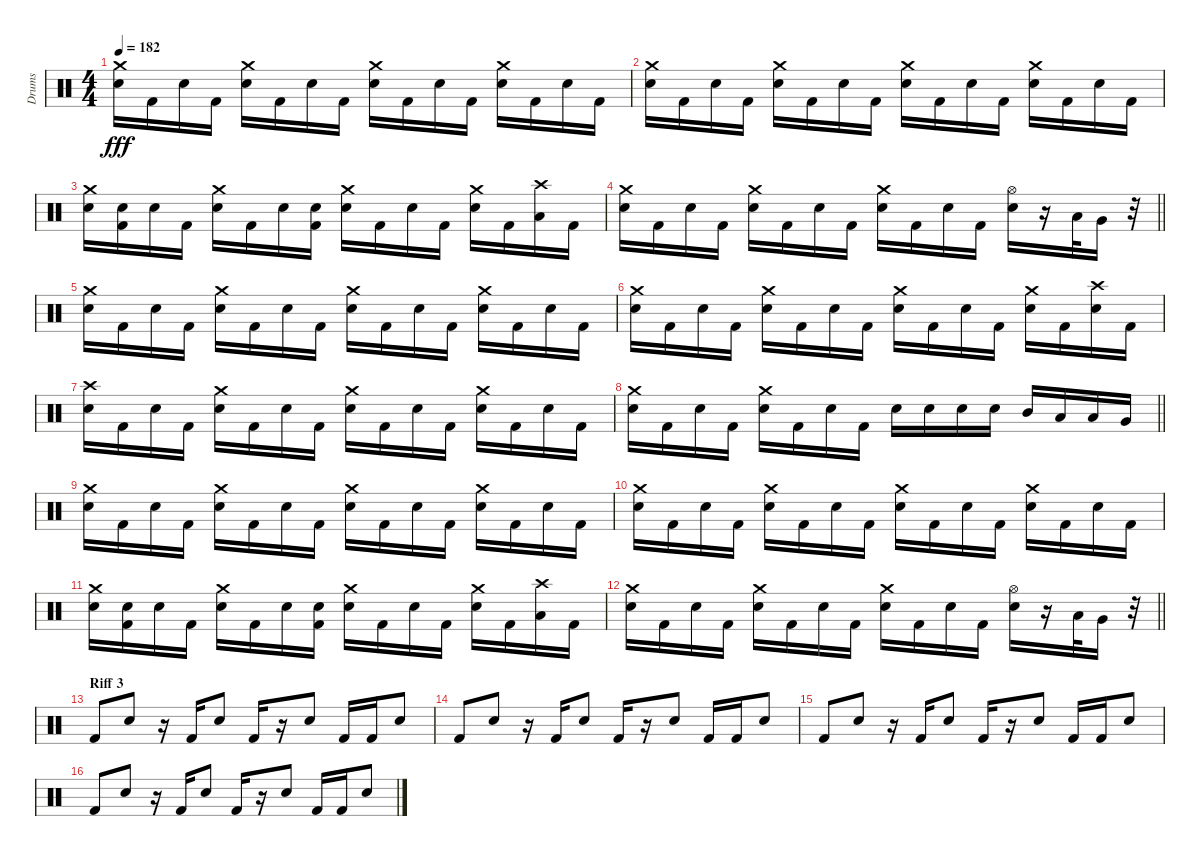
\track ("Drums" "Drums") {instrument percussion}
\staff {score}
\articulation defaults
\ts (4 4)
\tempo 182
\clef neutral
\ks c
("Crash medium (hit)" "Snare (hit) 2").16{dy fff} "Kick (hit) 2".16 "Snare (hit) 2".16 "Kick (hit) 2".16 ("Crash medium (hit)" "Snare (hit) 2").16 "Kick (hit) 2".16 "Snare (hit) 2".16 "Kick (hit) 2".16 ("Crash medium (hit)" "Snare (hit) 2").16 "Kick (hit) 2".16 "Snare (hit) 2".16 "Kick (hit) 2".16 ("Crash medium (hit)" "Snare (hit) 2").16 "Kick (hit) 2".16 "Snare (hit) 2".16 "Kick (hit) 2".16 |
("Crash medium (hit)" "Snare (hit) 2").16 "Kick (hit) 2".16 "Snare (hit) 2".16 "Kick (hit) 2".16 ("Crash medium (hit)" "Snare (hit) 2").16 "Kick (hit) 2".16 "Snare (hit) 2".16 "Kick (hit) 2".16 ("Crash medium (hit)" "Snare (hit) 2").16 "Kick (hit) 2".16 "Snare (hit) 2".16 "Kick (hit) 2".16 ("Crash medium (hit)" "Snare (hit) 2").16 "Kick (hit) 2".16 "Snare (hit) 2".16 "Kick (hit) 2".16 |
("Crash medium (hit)" "Snare (hit) 2").16 ("Kick (hit) 2" "Snare (hit) 2").16 "Snare (hit) 2".16 "Kick (hit) 2".16 ("Crash medium (hit)" "Snare (hit) 2").16 "Kick (hit) 2".16 "Snare (hit) 2".16 ("Kick (hit) 2" "Snare (hit) 2").16 ("Crash medium (hit)" "Snare (hit) 2").16 "Kick (hit) 2".16 "Snare (hit) 2".16 "Kick (hit) 2".16 ("Crash medium (hit)" "Snare (hit) 2").16 "Kick (hit) 2".16 ("Crash high (hit)" "Low Tom (hit)").16 "Kick (hit) 2".16 |
\barLineRight lightlight
("Crash medium (hit)" "Snare (hit) 2").16 "Kick (hit) 2".16 "Snare (hit) 2".16 "Kick (hit) 2".16 ("Crash medium (hit)" "Snare (hit) 2").16 "Kick (hit) 2".16 "Snare (hit) 2".16 "Kick (hit) 2".16 ("Crash medium (hit)" "Snare (hit) 2").16 "Kick (hit) 2".16 "Snare (hit) 2".16 "Kick (hit) 2".16 ("Hi-Hat (open)" "Snare (hit) 2").16 r.16 "Low Tom (hit)".32 "Very Low Tom (hit)".16 r.32 |
("Crash medium (hit)" "Snare (hit) 2").16 "Kick (hit) 2".16 "Snare (hit) 2".16 "Kick (hit) 2".16 ("Crash medium (hit)" "Snare (hit) 2").16 "Kick (hit) 2".16 "Snare (hit) 2".16 "Kick (hit) 2".16 ("Crash medium (hit)" "Snare (hit) 2").16 "Kick (hit) 2".16 "Snare (hit) 2".16 "Kick (hit) 2".16 ("Crash medium (hit)" "Snare (hit) 2").16 "Kick (hit) 2".16 "Snare (hit) 2".16 "Kick (hit) 2".16 |
("Crash medium (hit)" "Snare (hit) 2").16 "Kick (hit) 2".16 "Snare (hit) 2".16 "Kick (hit) 2".16 ("Crash medium (hit)" "Snare (hit) 2").16 "Kick (hit) 2".16 "Snare (hit) 2".16 "Kick (hit) 2".16 ("Crash medium (hit)" "Snare (hit) 2").16 "Kick (hit) 2".16 "Snare (hit) 2".16 "Kick (hit) 2".16 ("Crash medium (hit)" "Snare (hit) 2").16 "Kick (hit) 2".16 ("Crash high (hit)" "Snare (hit) 2").16 "Kick (hit) 2".16 |
("Crash high (hit)" "Snare (hit) 2").16 "Kick (hit) 2".16 "Snare (hit) 2".16 "Kick (hit) 2".16 ("Crash medium (hit)" "Snare (hit) 2").16 "Kick (hit) 2".16 "Snare (hit) 2".16 "Kick (hit) 2".16 ("Crash medium (hit)" "Snare (hit) 2").16 "Kick (hit) 2".16 "Snare (hit) 2".16 "Kick (hit) 2".16 ("Crash medium (hit)" "Snare (hit) 2").16 "Kick (hit) 2".16 "Snare (hit) 2".16 "Kick (hit) 2".16 |
\barLineRight lightlight
("Crash medium (hit)" "Snare (hit) 2").16 "Kick (hit) 2".16 "Snare (hit) 2".16 "Kick (hit) 2".16 ("Crash medium (hit)" "Snare (hit) 2").16 "Kick (hit) 2".16 "Snare (hit) 2".16 "Kick (hit) 2".16 "Snare (hit) 2".16 "Snare (hit) 2".16 "Snare (hit) 2".16 "Snare (hit) 2".16 "Mid Tom (hit)".16 "Low Tom (hit)".16 "Low Tom (hit)".16 "Very Low Tom (hit)".16 |
("Crash medium (hit)" "Snare (hit) 2").16 "Kick (hit) 2".16 "Snare (hit) 2".16 "Kick (hit) 2".16 ("Crash medium (hit)" "Snare (hit) 2").16 "Kick (hit) 2".16 "Snare (hit) 2".16 "Kick (hit) 2".16 ("Crash medium (hit)" "Snare (hit) 2").16 "Kick (hit) 2".16 "Snare (hit) 2".16 "Kick (hit) 2".16 ("Crash medium (hit)" "Snare (hit) 2").16 "Kick (hit) 2".16 "Snare (hit) 2".16 "Kick (hit) 2".16 |
("Crash medium (hit)" "Snare (hit) 2").16 "Kick (hit) 2".16 "Snare (hit) 2".16 "Kick (hit) 2".16 ("Crash medium (hit)" "Snare (hit) 2").16 "Kick (hit) 2".16 "Snare (hit) 2".16 "Kick (hit) 2".16 ("Crash medium (hit)" "Snare (hit) 2").16 "Kick (hit) 2".16 "Snare (hit) 2".16 "Kick (hit) 2".16 ("Crash medium (hit)" "Snare (hit) 2").16 "Kick (hit) 2".16 "Snare (hit) 2".16 "Kick (hit) 2".16 |
("Crash medium (hit)" "Snare (hit) 2").16 ("Kick (hit) 2" "Snare (hit) 2").16 "Snare (hit) 2".16 "Kick (hit) 2".16 ("Crash medium (hit)" "Snare (hit) 2").16 "Kick (hit) 2".16 "Snare (hit) 2".16 ("Kick (hit) 2" "Snare (hit) 2").16 ("Crash medium (hit)" "Snare (hit) 2").16 "Kick (hit) 2".16 "Snare (hit) 2".16 "Kick (hit) 2".16 ("Crash medium (hit)" "Snare (hit) 2").16 "Kick (hit) 2".16 ("Crash high (hit)" "Low Tom (hit)").16 "Kick (hit) 2".16 |
\barLineRight lightlight
("Crash medium (hit)" "Snare (hit) 2").16 "Kick (hit) 2".16 "Snare (hit) 2".16 "Kick (hit) 2".16 ("Crash medium (hit)" "Snare (hit) 2").16 "Kick (hit) 2".16 "Snare (hit) 2".16 "Kick (hit) 2".16 ("Crash medium (hit)" "Snare (hit) 2").16 "Kick (hit) 2".16 "Snare (hit) 2".16 "Kick (hit) 2".16 ("Hi-Hat (open)" "Snare (hit) 2").16 r.16 "Low Tom (hit)".32 "Very Low Tom (hit)".16 r.32 |
\section ("" "Riff 3")
"Kick (hit) 2".8 "Snare (hit) 2".8 r.16 "Kick (hit) 2".16 "Snare (hit) 2".8 "Kick (hit) 2".16 r.16 "Snare (hit) 2".8 "Kick (hit) 2".16 "Kick (hit) 2".16 "Snare (hit) 2".8 |
"Kick (hit) 2".8 "Snare (hit) 2".8 r.16 "Kick (hit) 2".16 "Snare (hit) 2".8 "Kick (hit) 2".16 r.16 "Snare (hit) 2".8 "Kick (hit) 2".16 "Kick (hit) 2".16 "Snare (hit) 2".8 |
"Kick (hit) 2".8 "Snare (hit) 2".8 r.16 "Kick (hit) 2".16 "Snare (hit) 2".8 "Kick (hit) 2".16 r.16 "Snare (hit) 2".8 "Kick (hit) 2".16 "Kick (hit) 2".16 "Snare (hit) 2".8 |
"Kick (hit) 2".8 "Snare (hit) 2".8 r.16 "Kick (hit) 2".16 "Snare (hit) 2".8 "Kick (hit) 2".16 r.16 "Snare (hit) 2".8 "Kick (hit) 2".16 "Kick (hit) 2".16 "Snare (hit) 2".8
